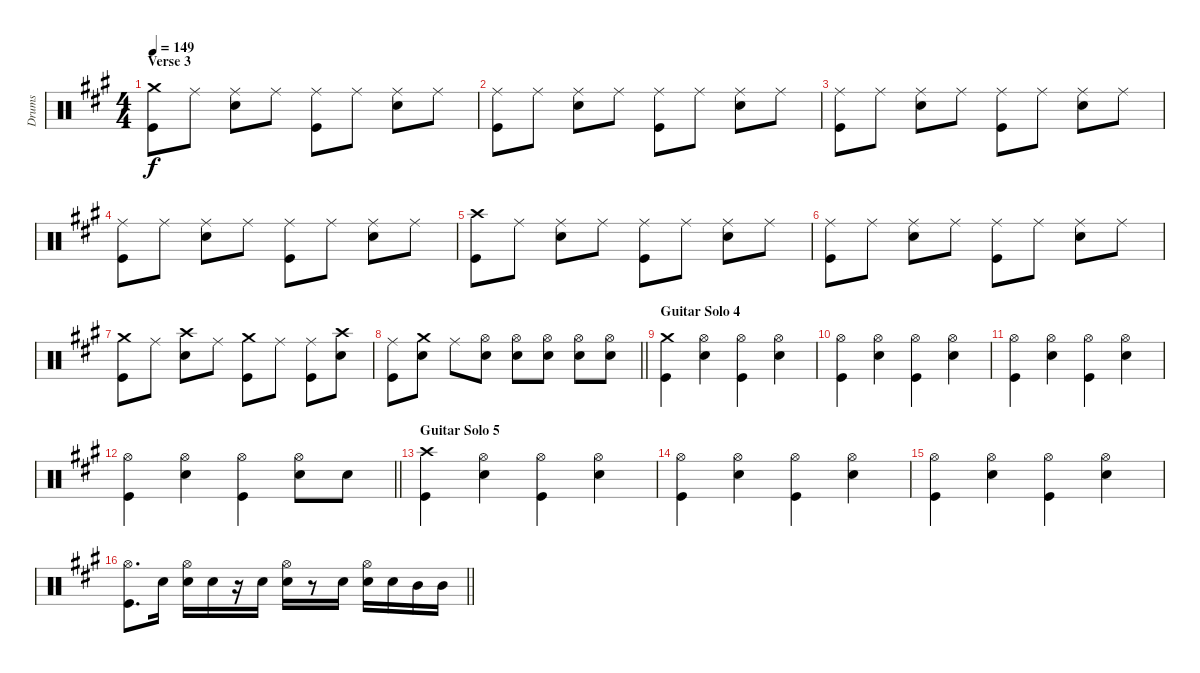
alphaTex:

\track ("Drums" "Drums") {instrument percussion}
\staff {score}
\articulation defaults
\ts (4 4)
\section ("" "Verse 3")
\tempo 149
\clef neutral
\ks f#minor
("Crash medium (hit)" "Kick (hit)").8{dy f} "Ride (middle)".8 ("Ride (middle)" "Snare (hit) 2").8 "Ride (middle)".8 ("Ride (middle)" "Kick (hit)").8 "Ride (middle)".8 ("Ride (middle)" "Snare (hit) 2").8 "Ride (middle)".8 |
("Ride (middle)" "Kick (hit)").8 "Ride (middle)".8 ("Ride (middle)" "Snare (hit) 2").8 "Ride (middle)".8 ("Ride (middle)" "Kick (hit)").8 "Ride (middle)".8 ("Ride (middle)" "Snare (hit) 2").8 "Ride (middle)".8 |
("Ride (middle)" "Kick (hit)").8 "Ride (middle)".8 ("Ride (middle)" "Snare (hit) 2").8 "Ride (middle)".8 ("Ride (middle)" "Kick (hit)").8 "Ride (middle)".8 ("Ride (middle)" "Snare (hit) 2").8 "Ride (middle)".8 |
("Ride (middle)" "Kick (hit)").8 "Ride (middle)".8 ("Ride (middle)" "Snare (hit) 2").8 "Ride (middle)".8 ("Ride (middle)" "Kick (hit)").8 "Ride (middle)".8 ("Ride (middle)" "Snare (hit) 2").8 "Ride (middle)".8 |
("Crash high (hit)" "Kick (hit)").8 "Ride (middle)".8 ("Ride (middle)" "Snare (hit) 2").8 "Ride (middle)".8 ("Ride (middle)" "Kick (hit)").8 "Ride (middle)".8 ("Ride (middle)" "Snare (hit) 2").8 "Ride (middle)".8 |
("Ride (middle)" "Kick (hit)").8 "Ride (middle)".8 ("Ride (middle)" "Snare (hit) 2").8 "Ride (middle)".8 ("Ride (middle)" "Kick (hit)").8 "Ride (middle)".8 ("Ride (middle)" "Snare (hit) 2").8 "Ride (middle)".8 |
("Crash medium (hit)" "Kick (hit)").8 "Ride (middle)".8 ("Crash high (hit)" "Snare (hit) 2").8 "Ride (middle)".8 ("Crash medium (hit)" "Kick (hit)").8 "Ride (middle)".8 ("Ride (middle)" "Kick (hit)").8 ("Crash high (hit)" "Snare (hit) 2").8 |
\barLineRight lightlight
("Ride (middle)" "Kick (hit)").8 ("Crash medium (hit)" "Snare (hit) 2").8 "Ride (middle)".8 ("Hi-Hat (open)" "Snare (hit) 2").8 ("Hi-Hat (open)" "Snare (hit) 2").8 ("Hi-Hat (open)" "Snare (hit) 2").8 ("Hi-Hat (open)" "Snare (hit) 2").8 ("Hi-Hat (open)" "Snare (hit) 2").8 |
\section ("" "Guitar Solo 4")
("Crash medium (hit)" "Kick (hit)").4 ("Hi-Hat (open)" "Snare (hit) 2").4 ("Hi-Hat (open)" "Kick (hit)").4 ("Hi-Hat (open)" "Snare (hit) 2").4 |
("Hi-Hat (open)" "Kick (hit)").4 ("Hi-Hat (open)" "Snare (hit) 2").4 ("Hi-Hat (open)" "Kick (hit)").4 ("Hi-Hat (open)" "Snare (hit) 2").4 |
("Hi-Hat (open)" "Kick (hit)").4 ("Hi-Hat (open)" "Snare (hit) 2").4 ("Hi-Hat (open)" "Kick (hit)").4 ("Hi-Hat (open)" "Snare (hit) 2").4 |
\barLineRight lightlight
("Hi-Hat (open)" "Kick (hit)").4 ("Hi-Hat (open)" "Snare (hit) 2").4 ("Hi-Hat (open)" "Kick (hit)").4 ("Hi-Hat (open)" "Snare (hit) 2").8 "Snare (hit) 2".8 |
\section ("" "Guitar Solo 5")
("Crash high (hit)" "Kick (hit)").4 ("Hi-Hat (open)" "Snare (hit) 2").4 ("Hi-Hat (open)" "Kick (hit)").4 ("Hi-Hat (open)" "Snare (hit) 2").4 |
("Hi-Hat (open)" "Kick (hit)").4 ("Hi-Hat (open)" "Snare (hit) 2").4 ("Hi-Hat (open)" "Kick (hit)").4 ("Hi-Hat (open)" "Snare (hit) 2").4 |
("Hi-Hat (open)" "Kick (hit)").4 ("Hi-Hat (open)" "Snare (hit) 2").4 ("Hi-Hat (open)" "Kick (hit)").4 ("Hi-Hat (open)" "Snare (hit) 2").4 |
\barLineRight lightlight
("Hi-Hat (open)" "Kick (hit)").8{d} "Snare (hit) 2".16 ("Hi-Hat (open)" "Snare (hit) 2").16 "Snare (hit) 2".16 r.16 "Snare (hit) 2".16 ("Hi-Hat (open)" "Snare (hit) 2").16 r.8 "Snare (hit) 2".16 ("Hi-Hat (open)" "Snare (hit) 2").16 "Snare (hit) 2".16 "Mid Tom (hit)".16 "Mid Tom (hit)".16
